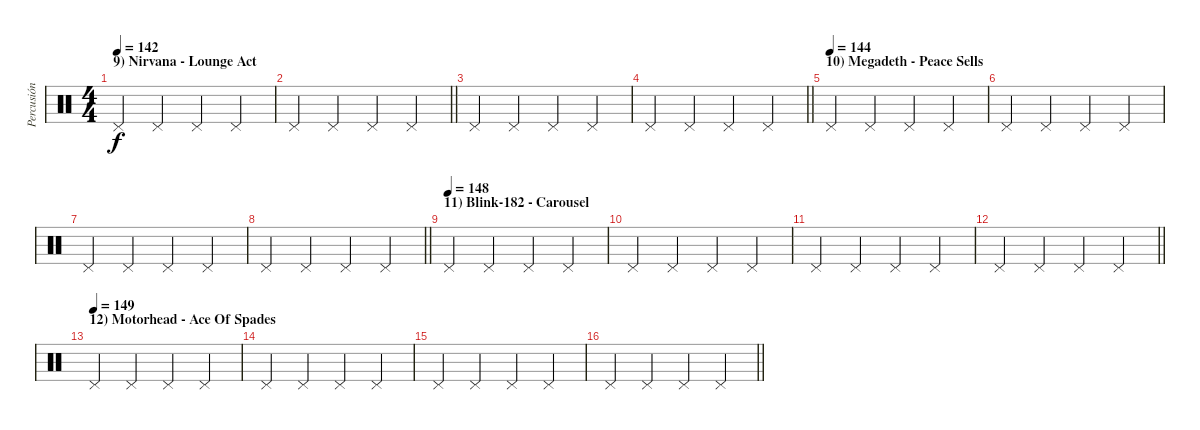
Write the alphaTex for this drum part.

\track ("Percusión" "Percusión") {instrument percussion}
\staff {score}
\articulation defaults
\ts (4 4)
\section ("" "9) Nirvana - Lounge Act")
\tempo 142
\clef neutral
\ks c "Pedal Hi-Hat (hit)".4{dy f} "Pedal Hi-Hat (hit)".4 "Pedal Hi-Hat (hit)".4 "Pedal Hi-Hat (hit)".4
|
\barLineRight lightlight "Pedal Hi-Hat (hit)".4 "Pedal Hi-Hat (hit)".4 "Pedal Hi-Hat (hit)".4 "Pedal Hi-Hat (hit)".4
|
"Pedal Hi-Hat (hit)".4 "Pedal Hi-Hat (hit)".4 "Pedal Hi-Hat (hit)".4 "Pedal Hi-Hat (hit)".4 |
\barLineRight lightlight "Pedal Hi-Hat (hit)".4 "Pedal Hi-Hat (hit)".4 "Pedal Hi-Hat (hit)".4 "Pedal Hi-Hat (hit)".4
|
\section ("" "10) Megadeth - Peace Sells")
\tempo (144)
"Pedal Hi-Hat (hit)".4 "Pedal Hi-Hat (hit)".4 "Pedal Hi-Hat (hit)".4 "Pedal Hi-Hat (hit)".4 |
"Pedal Hi-Hat (hit)".4 "Pedal Hi-Hat (hit)".4 "Pedal Hi-Hat (hit)".4 "Pedal Hi-Hat (hit)".4 |
"Pedal Hi-Hat (hit)".4 "Pedal Hi-Hat (hit)".4 "Pedal Hi-Hat (hit)".4 "Pedal Hi-Hat (hit)".4 |
\barLineRight lightlight "Pedal Hi-Hat (hit)".4 "Pedal Hi-Hat (hit)".4 "Pedal Hi-Hat (hit)".4 "Pedal Hi-Hat (hit)".4
|
\section ("" "11) Blink-182 - Carousel")
\tempo (148)
"Pedal Hi-Hat (hit)".4 "Pedal Hi-Hat (hit)".4 "Pedal Hi-Hat (hit)".4 "Pedal Hi-Hat (hit)".4 |
"Pedal Hi-Hat (hit)".4 "Pedal Hi-Hat (hit)".4 "Pedal Hi-Hat (hit)".4 "Pedal Hi-Hat (hit)".4 |
"Pedal Hi-Hat (hit)".4 "Pedal Hi-Hat (hit)".4 "Pedal Hi-Hat (hit)".4 "Pedal Hi-Hat (hit)".4 |
\barLineRight lightlight "Pedal Hi-Hat (hit)".4 "Pedal Hi-Hat (hit)".4 "Pedal Hi-Hat (hit)".4 "Pedal Hi-Hat (hit)".4
|
\section ("" "12) Motorhead - Ace Of Spades")
\tempo (149)
"Pedal Hi-Hat (hit)".4 "Pedal Hi-Hat (hit)".4 "Pedal Hi-Hat (hit)".4 "Pedal Hi-Hat (hit)".4 |
"Pedal Hi-Hat (hit)".4 "Pedal Hi-Hat (hit)".4 "Pedal Hi-Hat (hit)".4 "Pedal Hi-Hat (hit)".4 |
"Pedal Hi-Hat (hit)".4 "Pedal Hi-Hat (hit)".4 "Pedal Hi-Hat (hit)".4 "Pedal Hi-Hat (hit)".4 |
\barLineRight lightlight "Pedal Hi-Hat (hit)".4 "Pedal Hi-Hat (hit)".4 "Pedal Hi-Hat (hit)".4 "Pedal Hi-Hat (hit)".4
